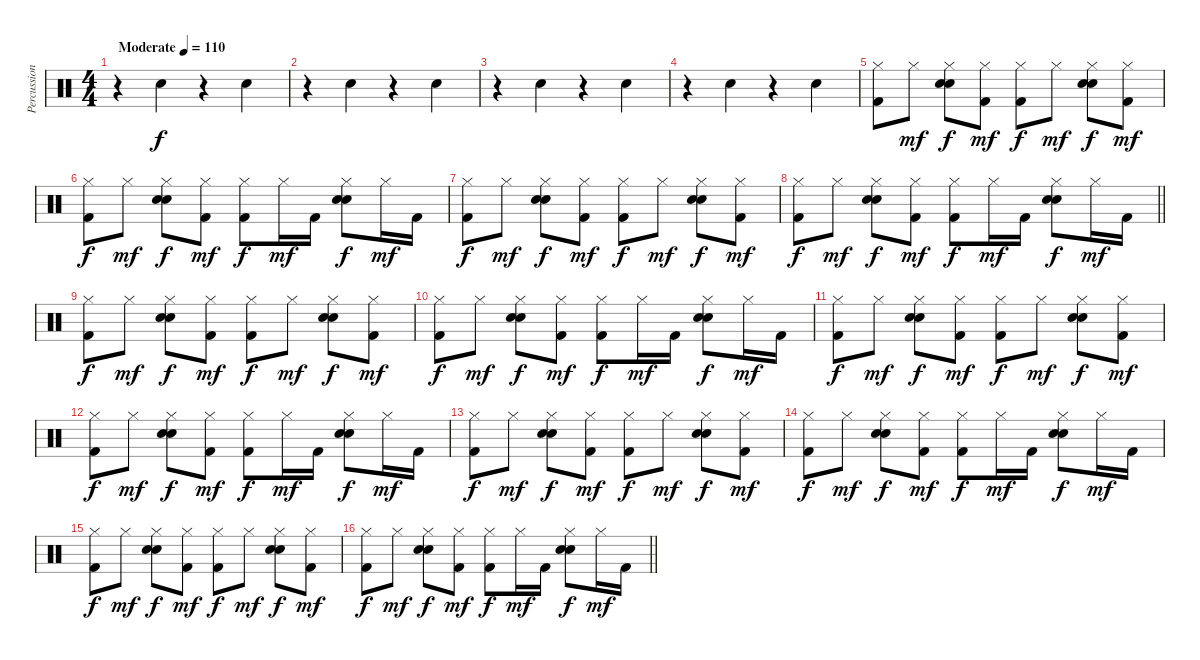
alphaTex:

\track ("Percussions" "Percussion") {instrument percussion}
\staff {score}
\articulation defaults
\ts (4 4)
\tempo (110 "Moderate")
\clef neutral
\ks c
r.4{dy f} "Hand Clap (hit)".4 r.4 "Hand Clap (hit)".4 |
r.4 "Hand Clap (hit)".4 r.4 "Hand Clap (hit)".4 |
r.4 "Hand Clap (hit)".4 r.4 "Hand Clap (hit)".4 |
r.4 "Hand Clap (hit)".4 r.4 "Hand Clap (hit)".4 |
("Hi-Hat (closed)" "Kick (hit) 2").8 "Hi-Hat (closed)".8{dy mf} ("Hi-Hat (closed)" "Hand Clap (hit)" "Electric Snare (hit)").8{dy f} ("Hi-Hat (closed)" "Kick (hit) 2").8{dy mf} ("Hi-Hat (closed)" "Kick (hit) 2").8{dy f} "Hi-Hat (closed)".8{dy mf} ("Hi-Hat (closed)" "Hand Clap (hit)" "Electric Snare (hit)").8{dy f} ("Hi-Hat (closed)" "Kick (hit) 2").8{dy mf} |
("Hi-Hat (closed)" "Kick (hit) 2").8{dy f} "Hi-Hat (closed)".8{dy mf} ("Hi-Hat (closed)" "Hand Clap (hit)" "Electric Snare (hit)").8{dy f} ("Hi-Hat (closed)" "Kick (hit) 2").8{dy mf} ("Hi-Hat (closed)" "Kick (hit) 2").8{dy f} "Hi-Hat (closed)".16{dy mf} "Kick (hit) 2".16 ("Hi-Hat (closed)" "Hand Clap (hit)" "Electric Snare (hit)").8{dy f} "Hi-Hat (closed)".16{dy mf} "Kick (hit) 2".16 |
("Hi-Hat (closed)" "Kick (hit) 2").8{dy f} "Hi-Hat (closed)".8{dy mf} ("Hi-Hat (closed)" "Hand Clap (hit)" "Electric Snare (hit)").8{dy f} ("Hi-Hat (closed)" "Kick (hit) 2").8{dy mf} ("Hi-Hat (closed)" "Kick (hit) 2").8{dy f} "Hi-Hat (closed)".8{dy mf} ("Hi-Hat (closed)" "Hand Clap (hit)" "Electric Snare (hit)").8{dy f} ("Hi-Hat (closed)" "Kick (hit) 2").8{dy mf} |
\barLineRight lightlight
("Hi-Hat (closed)" "Kick (hit) 2").8{dy f} "Hi-Hat (closed)".8{dy mf} ("Hi-Hat (closed)" "Hand Clap (hit)" "Electric Snare (hit)").8{dy f} ("Hi-Hat (closed)" "Kick (hit) 2").8{dy mf} ("Hi-Hat (closed)" "Kick (hit) 2").8{dy f} "Hi-Hat (closed)".16{dy mf} "Kick (hit) 2".16 ("Hi-Hat (closed)" "Hand Clap (hit)" "Electric Snare (hit)").8{dy f} "Hi-Hat (closed)".16{dy mf} "Kick (hit) 2".16 |
\section ("" "")
("Hi-Hat (closed)" "Kick (hit) 2").8{dy f} "Hi-Hat (closed)".8{dy mf} ("Hi-Hat (closed)" "Hand Clap (hit)" "Electric Snare (hit)").8{dy f} ("Hi-Hat (closed)" "Kick (hit) 2").8{dy mf} ("Hi-Hat (closed)" "Kick (hit) 2").8{dy f} "Hi-Hat (closed)".8{dy mf} ("Hi-Hat (closed)" "Hand Clap (hit)" "Electric Snare (hit)").8{dy f} ("Hi-Hat (closed)" "Kick (hit) 2").8{dy mf} |
("Hi-Hat (closed)" "Kick (hit) 2").8{dy f} "Hi-Hat (closed)".8{dy mf} ("Hi-Hat (closed)" "Hand Clap (hit)" "Electric Snare (hit)").8{dy f} ("Hi-Hat (closed)" "Kick (hit) 2").8{dy mf} ("Hi-Hat (closed)" "Kick (hit) 2").8{dy f} "Hi-Hat (closed)".16{dy mf} "Kick (hit) 2".16 ("Hi-Hat (closed)" "Hand Clap (hit)" "Electric Snare (hit)").8{dy f} "Hi-Hat (closed)".16{dy mf} "Kick (hit) 2".16 |
("Hi-Hat (closed)" "Kick (hit) 2").8{dy f} "Hi-Hat (closed)".8{dy mf} ("Hi-Hat (closed)" "Hand Clap (hit)" "Electric Snare (hit)").8{dy f} ("Hi-Hat (closed)" "Kick (hit) 2").8{dy mf} ("Hi-Hat (closed)" "Kick (hit) 2").8{dy f} "Hi-Hat (closed)".8{dy mf} ("Hi-Hat (closed)" "Hand Clap (hit)" "Electric Snare (hit)").8{dy f} ("Hi-Hat (closed)" "Kick (hit) 2").8{dy mf} |
("Hi-Hat (closed)" "Kick (hit) 2").8{dy f} "Hi-Hat (closed)".8{dy mf} ("Hi-Hat (closed)" "Hand Clap (hit)" "Electric Snare (hit)").8{dy f} ("Hi-Hat (closed)" "Kick (hit) 2").8{dy mf} ("Hi-Hat (closed)" "Kick (hit) 2").8{dy f} "Hi-Hat (closed)".16{dy mf} "Kick (hit) 2".16 ("Hi-Hat (closed)" "Hand Clap (hit)" "Electric Snare (hit)").8{dy f} "Hi-Hat (closed)".16{dy mf} "Kick (hit) 2".16 |
("Hi-Hat (closed)" "Kick (hit) 2").8{dy f} "Hi-Hat (closed)".8{dy mf} ("Hi-Hat (closed)" "Hand Clap (hit)" "Electric Snare (hit)").8{dy f} ("Hi-Hat (closed)" "Kick (hit) 2").8{dy mf} ("Hi-Hat (closed)" "Kick (hit) 2").8{dy f} "Hi-Hat (closed)".8{dy mf} ("Hi-Hat (closed)" "Hand Clap (hit)" "Electric Snare (hit)").8{dy f} ("Hi-Hat (closed)" "Kick (hit) 2").8{dy mf} |
("Hi-Hat (closed)" "Kick (hit) 2").8{dy f} "Hi-Hat (closed)".8{dy mf} ("Hi-Hat (closed)" "Hand Clap (hit)" "Electric Snare (hit)").8{dy f} ("Hi-Hat (closed)" "Kick (hit) 2").8{dy mf} ("Hi-Hat (closed)" "Kick (hit) 2").8{dy f} "Hi-Hat (closed)".16{dy mf} "Kick (hit) 2".16 ("Hi-Hat (closed)" "Hand Clap (hit)" "Electric Snare (hit)").8{dy f} "Hi-Hat (closed)".16{dy mf} "Kick (hit) 2".16 |
("Hi-Hat (closed)" "Kick (hit) 2").8{dy f} "Hi-Hat (closed)".8{dy mf} ("Hi-Hat (closed)" "Hand Clap (hit)" "Electric Snare (hit)").8{dy f} ("Hi-Hat (closed)" "Kick (hit) 2").8{dy mf} ("Hi-Hat (closed)" "Kick (hit) 2").8{dy f} "Hi-Hat (closed)".8{dy mf} ("Hi-Hat (closed)" "Hand Clap (hit)" "Electric Snare (hit)").8{dy f} ("Hi-Hat (closed)" "Kick (hit) 2").8{dy mf} |
\barLineRight lightlight
("Hi-Hat (closed)" "Kick (hit) 2").8{dy f} "Hi-Hat (closed)".8{dy mf} ("Hi-Hat (closed)" "Hand Clap (hit)" "Electric Snare (hit)").8{dy f} ("Hi-Hat (closed)" "Kick (hit) 2").8{dy mf} ("Hi-Hat (closed)" "Kick (hit) 2").8{dy f} "Hi-Hat (closed)".16{dy mf} "Kick (hit) 2".16 ("Hi-Hat (closed)" "Hand Clap (hit)" "Electric Snare (hit)").8{dy f} "Hi-Hat (closed)".16{dy mf} "Kick (hit) 2".16
